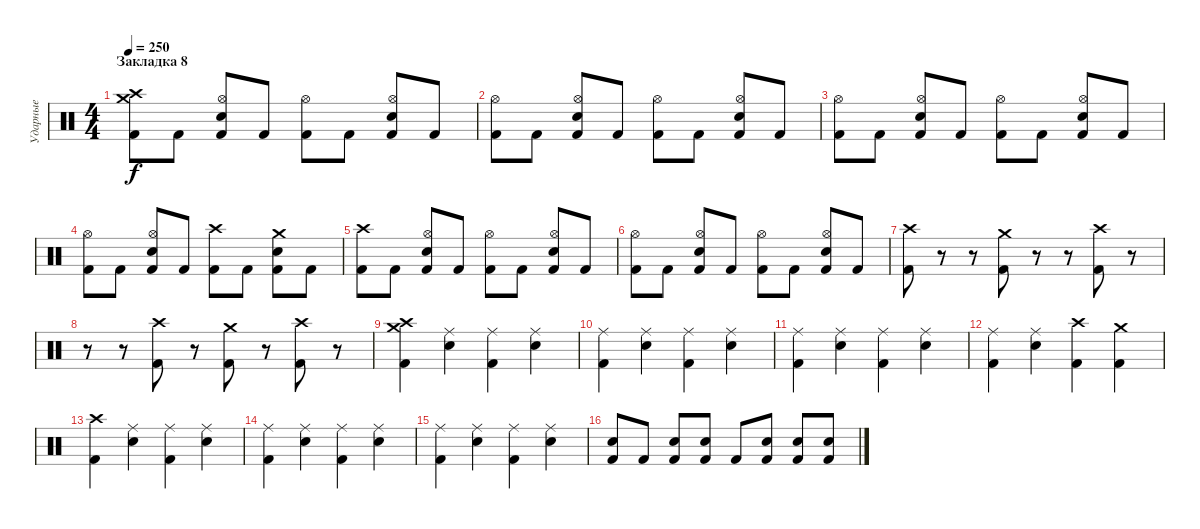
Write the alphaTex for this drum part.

\track ("Ударные" "Ударные") {instrument percussion}
\staff {score}
\articulation defaults
\ts (4 4)
\section ("" "Закладка 8")
\tempo 250
\clef neutral
\ks c
("Crash medium (hit)" "Crash high (hit)" "Kick (hit) 2").8{dy f} "Kick (hit) 2".8 ("Hi-Hat (open)" "Electric Snare (hit)" "Kick (hit) 2").8 "Kick (hit) 2".8 ("Hi-Hat (open)" "Kick (hit) 2").8 "Kick (hit) 2".8 ("Hi-Hat (open)" "Electric Snare (hit)" "Kick (hit) 2").8 "Kick (hit) 2".8 |
("Hi-Hat (open)" "Kick (hit) 2").8 "Kick (hit) 2".8 ("Hi-Hat (open)" "Electric Snare (hit)" "Kick (hit) 2").8 "Kick (hit) 2".8 ("Hi-Hat (open)" "Kick (hit) 2").8 "Kick (hit) 2".8 ("Hi-Hat (open)" "Electric Snare (hit)" "Kick (hit) 2").8 "Kick (hit) 2".8 |
("Hi-Hat (open)" "Kick (hit) 2").8 "Kick (hit) 2".8 ("Hi-Hat (open)" "Electric Snare (hit)" "Kick (hit) 2").8 "Kick (hit) 2".8 ("Hi-Hat (open)" "Kick (hit) 2").8 "Kick (hit) 2".8 ("Hi-Hat (open)" "Electric Snare (hit)" "Kick (hit) 2").8 "Kick (hit) 2".8 |
("Hi-Hat (open)" "Kick (hit) 2").8 "Kick (hit) 2".8 ("Hi-Hat (open)" "Electric Snare (hit)" "Kick (hit) 2").8 "Kick (hit) 2".8 ("Crash high (hit)" "Kick (hit) 2").8 "Kick (hit) 2".8 ("Crash medium (hit)" "Electric Snare (hit)" "Kick (hit) 2").8 "Kick (hit) 2".8 |
("Crash high (hit)" "Kick (hit) 2").8 "Kick (hit) 2".8 ("Hi-Hat (open)" "Electric Snare (hit)" "Kick (hit) 2").8 "Kick (hit) 2".8 ("Hi-Hat (open)" "Kick (hit) 2").8 "Kick (hit) 2".8 ("Hi-Hat (open)" "Electric Snare (hit)" "Kick (hit) 2").8 "Kick (hit) 2".8 |
("Hi-Hat (open)" "Kick (hit) 2").8 "Kick (hit) 2".8 ("Hi-Hat (open)" "Electric Snare (hit)" "Kick (hit) 2").8 "Kick (hit) 2".8 ("Hi-Hat (open)" "Kick (hit) 2").8 "Kick (hit) 2".8 ("Hi-Hat (open)" "Electric Snare (hit)" "Kick (hit) 2").8 "Kick (hit) 2".8 |
("Crash high (hit)" "Kick (hit) 2").8 r.8 r.8 ("Crash medium (hit)" "Kick (hit) 2").8 r.8 r.8 ("Crash high (hit)" "Kick (hit) 2").8 r.8 |
r.8 r.8 ("Crash high (hit)" "Kick (hit) 2").8 r.8 ("Crash medium (hit)" "Kick (hit) 2").8 r.8 ("Crash high (hit)" "Kick (hit) 2").8 r.8 |
("Crash medium (hit)" "Crash high (hit)" "Kick (hit) 2").4 ("Ride (middle)" "Electric Snare (hit)").4 ("Ride (middle)" "Kick (hit) 2").4 ("Ride (middle)" "Electric Snare (hit)").4 |
("Ride (middle)" "Kick (hit) 2").4 ("Ride (middle)" "Electric Snare (hit)").4 ("Ride (middle)" "Kick (hit) 2").4 ("Ride (middle)" "Electric Snare (hit)").4 |
("Ride (middle)" "Kick (hit) 2").4 ("Ride (middle)" "Electric Snare (hit)").4 ("Ride (middle)" "Kick (hit) 2").4 ("Ride (middle)" "Electric Snare (hit)").4 |
("Ride (middle)" "Kick (hit) 2").4 ("Ride (middle)" "Electric Snare (hit)").4 ("Crash high (hit)" "Kick (hit) 2").4 ("Crash medium (hit)" "Kick (hit) 2").4 |
("Crash high (hit)" "Kick (hit) 2").4 ("Ride (middle)" "Electric Snare (hit)").4 ("Ride (middle)" "Kick (hit) 2").4 ("Ride (middle)" "Electric Snare (hit)").4 |
("Ride (middle)" "Kick (hit) 2").4 ("Ride (middle)" "Electric Snare (hit)").4 ("Ride (middle)" "Kick (hit) 2").4 ("Ride (middle)" "Electric Snare (hit)").4 |
("Ride (middle)" "Kick (hit) 2").4 ("Ride (middle)" "Electric Snare (hit)").4 ("Ride (middle)" "Kick (hit) 2").4 ("Ride (middle)" "Electric Snare (hit)").4 |
("Electric Snare (hit)" "Kick (hit) 2").8 "Kick (hit) 2".8 ("Electric Snare (hit)" "Kick (hit) 2").8 ("Electric Snare (hit)" "Kick (hit) 2").8 "Kick (hit) 2".8 ("Electric Snare (hit)" "Kick (hit) 2").8 ("Electric Snare (hit)" "Kick (hit) 2").8 ("Electric Snare (hit)" "Kick (hit) 2").8
